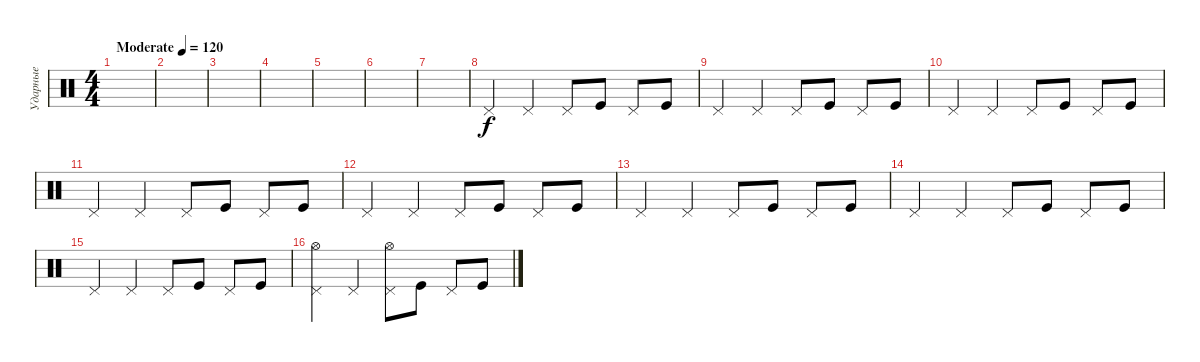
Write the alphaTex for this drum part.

\track ("Ударные" "Ударные") {instrument percussion}
\staff {score}
\articulation defaults
\ts (4 4)
\tempo (120 "Moderate")
\clef neutral
\ks c
|
|
|
|
|
|
|
"Pedal Hi-Hat (hit)".4 "Pedal Hi-Hat (hit)".4 "Pedal Hi-Hat (hit)".8 "Kick (hit)".8 "Pedal Hi-Hat (hit)".8 "Kick (hit)".8 |
"Pedal Hi-Hat (hit)".4 "Pedal Hi-Hat (hit)".4 "Pedal Hi-Hat (hit)".8 "Kick (hit)".8 "Pedal Hi-Hat (hit)".8 "Kick (hit)".8 |
"Pedal Hi-Hat (hit)".4 "Pedal Hi-Hat (hit)".4 "Pedal Hi-Hat (hit)".8 "Kick (hit)".8 "Pedal Hi-Hat (hit)".8 "Kick (hit)".8 |
"Pedal Hi-Hat (hit)".4 "Pedal Hi-Hat (hit)".4 "Pedal Hi-Hat (hit)".8 "Kick (hit)".8 "Pedal Hi-Hat (hit)".8 "Kick (hit)".8 |
"Pedal Hi-Hat (hit)".4 "Pedal Hi-Hat (hit)".4 "Pedal Hi-Hat (hit)".8 "Kick (hit)".8 "Pedal Hi-Hat (hit)".8 "Kick (hit)".8 |
"Pedal Hi-Hat (hit)".4 "Pedal Hi-Hat (hit)".4 "Pedal Hi-Hat (hit)".8 "Kick (hit)".8 "Pedal Hi-Hat (hit)".8 "Kick (hit)".8 |
"Pedal Hi-Hat (hit)".4 "Pedal Hi-Hat (hit)".4 "Pedal Hi-Hat (hit)".8 "Kick (hit)".8 "Pedal Hi-Hat (hit)".8 "Kick (hit)".8 |
"Pedal Hi-Hat (hit)".4 "Pedal Hi-Hat (hit)".4 "Pedal Hi-Hat (hit)".8 "Kick (hit)".8 "Pedal Hi-Hat (hit)".8 "Kick (hit)".8 |
("Pedal Hi-Hat (hit)" "Hi-Hat (open)").4 "Pedal Hi-Hat (hit)".4 ("Pedal Hi-Hat (hit)" "Hi-Hat (open)").8 "Kick (hit)".8 "Pedal Hi-Hat (hit)".8 "Kick (hit)".8
